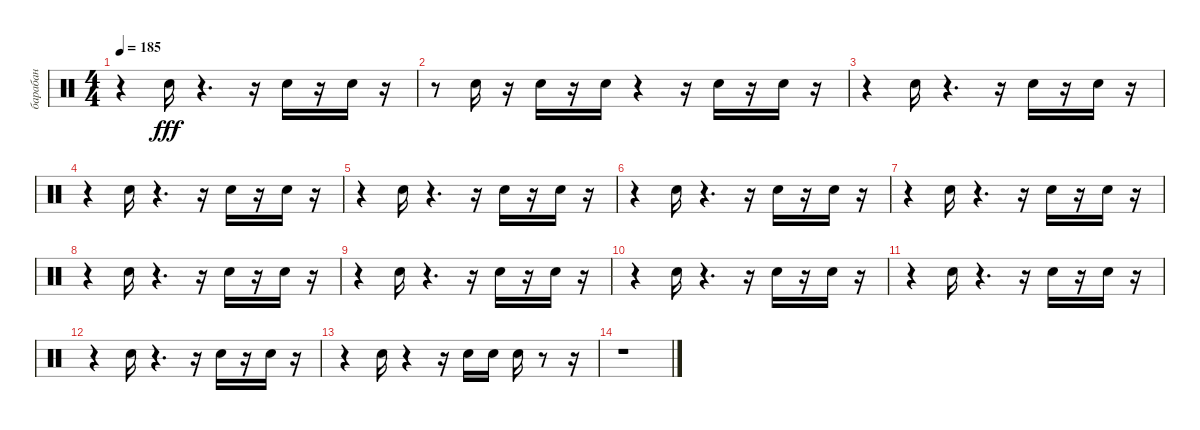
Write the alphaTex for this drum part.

\track ("барабан" "барабан") {instrument percussion}
\staff {score}
\articulation defaults
\ts (4 4)
\tempo 185
\clef neutral
\ks c
r.4{dy fff} "Snare (hit) 2".16 r.4{d} r.16 "Snare (hit) 2".16 r.16 "Snare (hit) 2".16 r.16 |
r.8 "Snare (hit) 2".16 r.16 "Snare (hit) 2".16 r.16 "Snare (hit) 2".16 r.4 r.16 "Snare (hit) 2".16 r.16 "Snare (hit) 2".16 r.16 |
r.4 "Snare (hit) 2".16 r.4{d} r.16 "Snare (hit) 2".16 r.16 "Snare (hit) 2".16 r.16 |
r.4 "Snare (hit) 2".16 r.4{d} r.16 "Snare (hit) 2".16 r.16 "Snare (hit) 2".16 r.16 |
r.4 "Snare (hit) 2".16 r.4{d} r.16 "Snare (hit) 2".16 r.16 "Snare (hit) 2".16 r.16 |
r.4 "Snare (hit) 2".16 r.4{d} r.16 "Snare (hit) 2".16 r.16 "Snare (hit) 2".16 r.16 |
r.4 "Snare (hit) 2".16 r.4{d} r.16 "Snare (hit) 2".16 r.16 "Snare (hit) 2".16 r.16 |
r.4 "Snare (hit) 2".16 r.4{d} r.16 "Snare (hit) 2".16 r.16 "Snare (hit) 2".16 r.16 |
r.4 "Snare (hit) 2".16 r.4{d} r.16 "Snare (hit) 2".16 r.16 "Snare (hit) 2".16 r.16 |
r.4 "Snare (hit) 2".16 r.4{d} r.16 "Snare (hit) 2".16 r.16 "Snare (hit) 2".16 r.16 |
r.4 "Snare (hit) 2".16 r.4{d} r.16 "Snare (hit) 2".16 r.16 "Snare (hit) 2".16 r.16 |
r.4 "Snare (hit) 2".16 r.4{d} r.16 "Snare (hit) 2".16 r.16 "Snare (hit) 2".16 r.16 |
r.4 "Snare (hit) 2".16 r.4 r.16 "Snare (hit) 2".16 "Snare (hit) 2".16 "Snare (hit) 2".16 r.8 r.16 |
r.1
